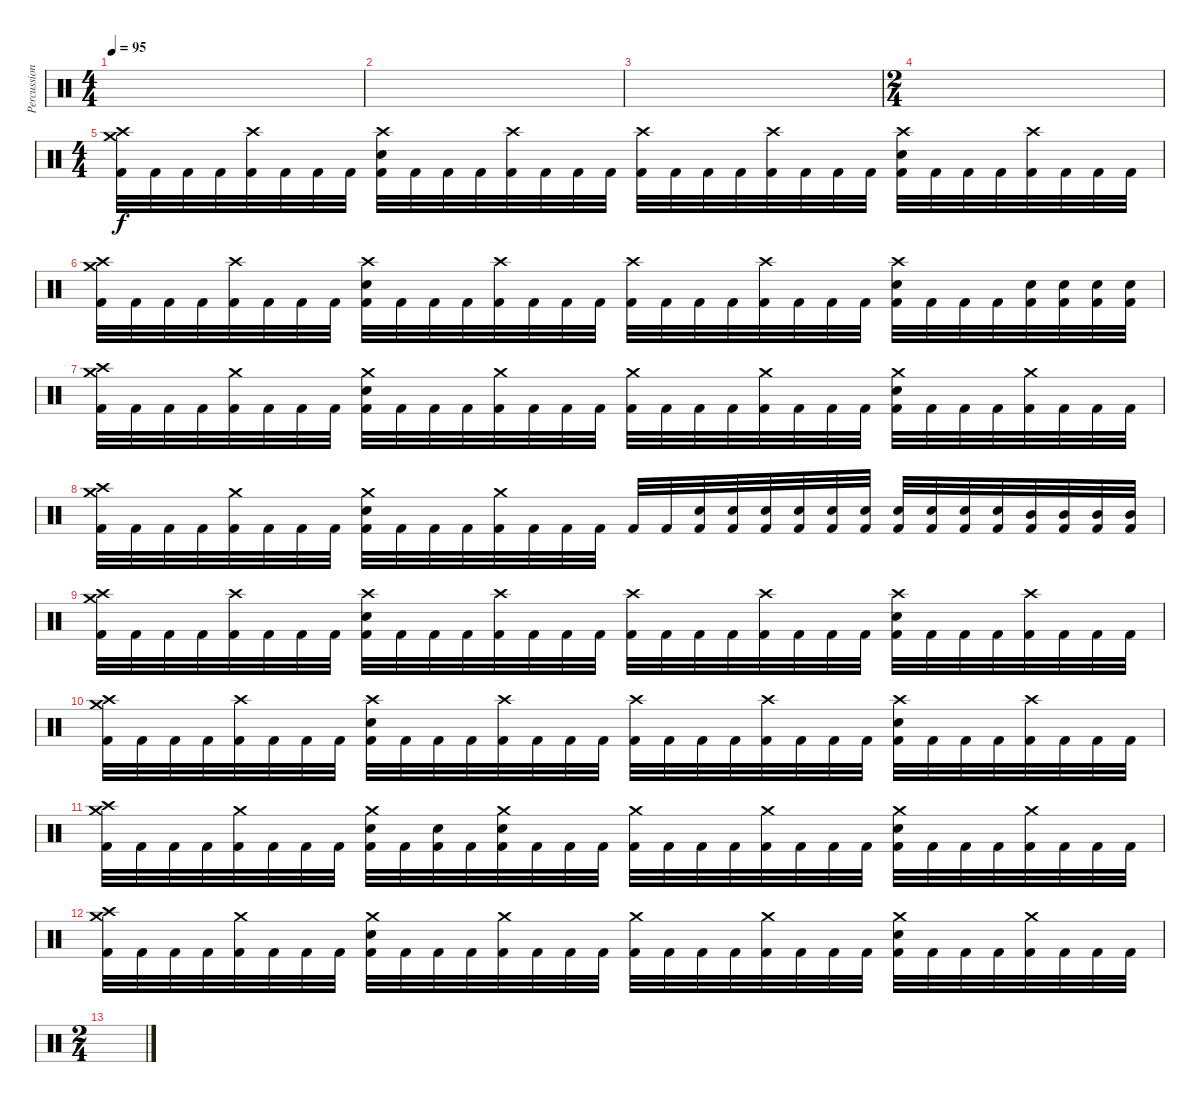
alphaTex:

\track ("Percussion" "Percussion") {instrument percussion}
\staff {score}
\articulation defaults
\ts (4 4)
\tempo 95
\clef neutral
\ks c
|
|
|
\ts (2 4)
|
\ts (4 4)
("Crash high (hit)" "Crash medium (hit)" "Kick (hit) 2").32 "Kick (hit) 2".32 "Kick (hit) 2".32 "Kick (hit) 2".32 ("Crash high (hit)" "Kick (hit) 2").32 "Kick (hit) 2".32 "Kick (hit) 2".32 "Kick (hit) 2".32 ("Crash high (hit)" "Snare (hit) 2" "Kick (hit) 2").32 "Kick (hit) 2".32 "Kick (hit) 2".32 "Kick (hit) 2".32 ("Crash high (hit)" "Kick (hit) 2").32 "Kick (hit) 2".32 "Kick (hit) 2".32 "Kick (hit) 2".32 ("Crash high (hit)" "Kick (hit) 2").32 "Kick (hit) 2".32 "Kick (hit) 2".32 "Kick (hit) 2".32 ("Crash high (hit)" "Kick (hit) 2").32 "Kick (hit) 2".32 "Kick (hit) 2".32 "Kick (hit) 2".32 ("Crash high (hit)" "Snare (hit) 2" "Kick (hit) 2").32 "Kick (hit) 2".32 "Kick (hit) 2".32 "Kick (hit) 2".32 ("Crash high (hit)" "Kick (hit) 2").32 "Kick (hit) 2".32 "Kick (hit) 2".32 "Kick (hit) 2".32 |
("Crash high (hit)" "Crash medium (hit)" "Kick (hit) 2").32 "Kick (hit) 2".32 "Kick (hit) 2".32 "Kick (hit) 2".32 ("Crash high (hit)" "Kick (hit) 2").32 "Kick (hit) 2".32 "Kick (hit) 2".32 "Kick (hit) 2".32 ("Crash high (hit)" "Snare (hit) 2" "Kick (hit) 2").32 "Kick (hit) 2".32 "Kick (hit) 2".32 "Kick (hit) 2".32 ("Crash high (hit)" "Kick (hit) 2").32 "Kick (hit) 2".32 "Kick (hit) 2".32 "Kick (hit) 2".32 ("Crash high (hit)" "Kick (hit) 2").32 "Kick (hit) 2".32 "Kick (hit) 2".32 "Kick (hit) 2".32 ("Crash high (hit)" "Kick (hit) 2").32 "Kick (hit) 2".32 "Kick (hit) 2".32 "Kick (hit) 2".32 ("Crash high (hit)" "Snare (hit) 2" "Kick (hit) 2").32 "Kick (hit) 2".32 "Kick (hit) 2".32 "Kick (hit) 2".32 ("Snare (hit) 2" "Kick (hit) 2").32 ("Snare (hit) 2" "Kick (hit) 2").32 ("Snare (hit) 2" "Kick (hit) 2").32 ("Snare (hit) 2" "Kick (hit) 2").32 |
("Crash high (hit)" "Crash medium (hit)" "Kick (hit) 2").32 "Kick (hit) 2".32 "Kick (hit) 2".32 "Kick (hit) 2".32 ("Crash medium (hit)" "Kick (hit) 2").32 "Kick (hit) 2".32 "Kick (hit) 2".32 "Kick (hit) 2".32 ("Crash medium (hit)" "Snare (hit) 2" "Kick (hit) 2").32 "Kick (hit) 2".32 "Kick (hit) 2".32 "Kick (hit) 2".32 ("Crash medium (hit)" "Kick (hit) 2").32 "Kick (hit) 2".32 "Kick (hit) 2".32 "Kick (hit) 2".32 ("Crash medium (hit)" "Kick (hit) 2").32 "Kick (hit) 2".32 "Kick (hit) 2".32 "Kick (hit) 2".32 ("Crash medium (hit)" "Kick (hit) 2").32 "Kick (hit) 2".32 "Kick (hit) 2".32 "Kick (hit) 2".32 ("Crash medium (hit)" "Snare (hit) 2" "Kick (hit) 2").32 "Kick (hit) 2".32 "Kick (hit) 2".32 "Kick (hit) 2".32 ("Crash medium (hit)" "Kick (hit) 2").32 "Kick (hit) 2".32 "Kick (hit) 2".32 "Kick (hit) 2".32 |
("Crash high (hit)" "Crash medium (hit)" "Kick (hit) 2").32 "Kick (hit) 2".32 "Kick (hit) 2".32 "Kick (hit) 2".32 ("Crash medium (hit)" "Kick (hit) 2").32 "Kick (hit) 2".32 "Kick (hit) 2".32 "Kick (hit) 2".32 ("Crash medium (hit)" "Snare (hit) 2" "Kick (hit) 2").32 "Kick (hit) 2".32 "Kick (hit) 2".32 "Kick (hit) 2".32 ("Crash medium (hit)" "Kick (hit) 2").32 "Kick (hit) 2".32 "Kick (hit) 2".32 "Kick (hit) 2".32 "Kick (hit) 2".32 "Kick (hit) 2".32 ("Snare (hit) 2" "Kick (hit) 2").32 ("Snare (hit) 2" "Kick (hit) 2").32 ("Snare (hit) 2" "Kick (hit) 2").32 ("Snare (hit) 2" "Kick (hit) 2").32 ("Snare (hit) 2" "Kick (hit) 2").32 ("Snare (hit) 2" "Kick (hit) 2").32 ("Snare (hit) 2" "Kick (hit) 2").32 ("Snare (hit) 2" "Kick (hit) 2").32 ("Snare (hit) 2" "Kick (hit) 2").32 ("Snare (hit) 2" "Kick (hit) 2").32 ("Mid Tom (hit)" "Kick (hit) 2").32 ("Mid Tom (hit)" "Kick (hit) 2").32 ("Mid Tom (hit)" "Kick (hit) 2").32 ("Mid Tom (hit)" "Kick (hit) 2").32 |
("Crash high (hit)" "Crash medium (hit)" "Kick (hit) 2").32 "Kick (hit) 2".32 "Kick (hit) 2".32 "Kick (hit) 2".32 ("Crash high (hit)" "Kick (hit) 2").32 "Kick (hit) 2".32 "Kick (hit) 2".32 "Kick (hit) 2".32 ("Crash high (hit)" "Snare (hit) 2" "Kick (hit) 2").32 "Kick (hit) 2".32 "Kick (hit) 2".32 "Kick (hit) 2".32 ("Crash high (hit)" "Kick (hit) 2").32 "Kick (hit) 2".32 "Kick (hit) 2".32 "Kick (hit) 2".32 ("Crash high (hit)" "Kick (hit) 2").32 "Kick (hit) 2".32 "Kick (hit) 2".32 "Kick (hit) 2".32 ("Crash high (hit)" "Kick (hit) 2").32 "Kick (hit) 2".32 "Kick (hit) 2".32 "Kick (hit) 2".32 ("Crash high (hit)" "Snare (hit) 2" "Kick (hit) 2").32 "Kick (hit) 2".32 "Kick (hit) 2".32 "Kick (hit) 2".32 ("Crash high (hit)" "Kick (hit) 2").32 "Kick (hit) 2".32 "Kick (hit) 2".32 "Kick (hit) 2".32 |
("Crash high (hit)" "Crash medium (hit)" "Kick (hit) 2").32 "Kick (hit) 2".32 "Kick (hit) 2".32 "Kick (hit) 2".32 ("Crash high (hit)" "Kick (hit) 2").32 "Kick (hit) 2".32 "Kick (hit) 2".32 "Kick (hit) 2".32 ("Crash high (hit)" "Snare (hit) 2" "Kick (hit) 2").32 "Kick (hit) 2".32 "Kick (hit) 2".32 "Kick (hit) 2".32 ("Crash high (hit)" "Kick (hit) 2").32 "Kick (hit) 2".32 "Kick (hit) 2".32 "Kick (hit) 2".32 ("Crash high (hit)" "Kick (hit) 2").32 "Kick (hit) 2".32 "Kick (hit) 2".32 "Kick (hit) 2".32 ("Crash high (hit)" "Kick (hit) 2").32 "Kick (hit) 2".32 "Kick (hit) 2".32 "Kick (hit) 2".32 ("Crash high (hit)" "Snare (hit) 2" "Kick (hit) 2").32 "Kick (hit) 2".32 "Kick (hit) 2".32 "Kick (hit) 2".32 ("Crash high (hit)" "Kick (hit) 2").32 "Kick (hit) 2".32 "Kick (hit) 2".32 "Kick (hit) 2".32 |
("Crash high (hit)" "Crash medium (hit)" "Kick (hit) 2").32 "Kick (hit) 2".32 "Kick (hit) 2".32 "Kick (hit) 2".32 ("Crash medium (hit)" "Kick (hit) 2").32 "Kick (hit) 2".32 "Kick (hit) 2".32 "Kick (hit) 2".32 ("Crash medium (hit)" "Snare (hit) 2" "Kick (hit) 2").32 "Kick (hit) 2".32 ("Snare (hit) 2" "Kick (hit) 2").32 "Kick (hit) 2".32 ("Crash medium (hit)" "Snare (hit) 2" "Kick (hit) 2").32 "Kick (hit) 2".32 "Kick (hit) 2".32 "Kick (hit) 2".32 ("Crash medium (hit)" "Kick (hit) 2").32 "Kick (hit) 2".32 "Kick (hit) 2".32 "Kick (hit) 2".32 ("Crash medium (hit)" "Kick (hit) 2").32 "Kick (hit) 2".32 "Kick (hit) 2".32 "Kick (hit) 2".32 ("Crash medium (hit)" "Snare (hit) 2" "Kick (hit) 2").32 "Kick (hit) 2".32 "Kick (hit) 2".32 "Kick (hit) 2".32 ("Crash medium (hit)" "Kick (hit) 2").32 "Kick (hit) 2".32 "Kick (hit) 2".32 "Kick (hit) 2".32 |
("Crash high (hit)" "Crash medium (hit)" "Kick (hit) 2").32 "Kick (hit) 2".32 "Kick (hit) 2".32 "Kick (hit) 2".32 ("Crash medium (hit)" "Kick (hit) 2").32 "Kick (hit) 2".32 "Kick (hit) 2".32 "Kick (hit) 2".32 ("Crash medium (hit)" "Snare (hit) 2" "Kick (hit) 2").32 "Kick (hit) 2".32 "Kick (hit) 2".32 "Kick (hit) 2".32 ("Crash medium (hit)" "Kick (hit) 2").32 "Kick (hit) 2".32 "Kick (hit) 2".32 "Kick (hit) 2".32 ("Crash medium (hit)" "Kick (hit) 2").32 "Kick (hit) 2".32 "Kick (hit) 2".32 "Kick (hit) 2".32 ("Crash medium (hit)" "Kick (hit) 2").32 "Kick (hit) 2".32 "Kick (hit) 2".32 "Kick (hit) 2".32 ("Crash medium (hit)" "Snare (hit) 2" "Kick (hit) 2").32 "Kick (hit) 2".32 "Kick (hit) 2".32 "Kick (hit) 2".32 ("Crash medium (hit)" "Kick (hit) 2").32 "Kick (hit) 2".32 "Kick (hit) 2".32 "Kick (hit) 2".32 |
\ts (2 4)
